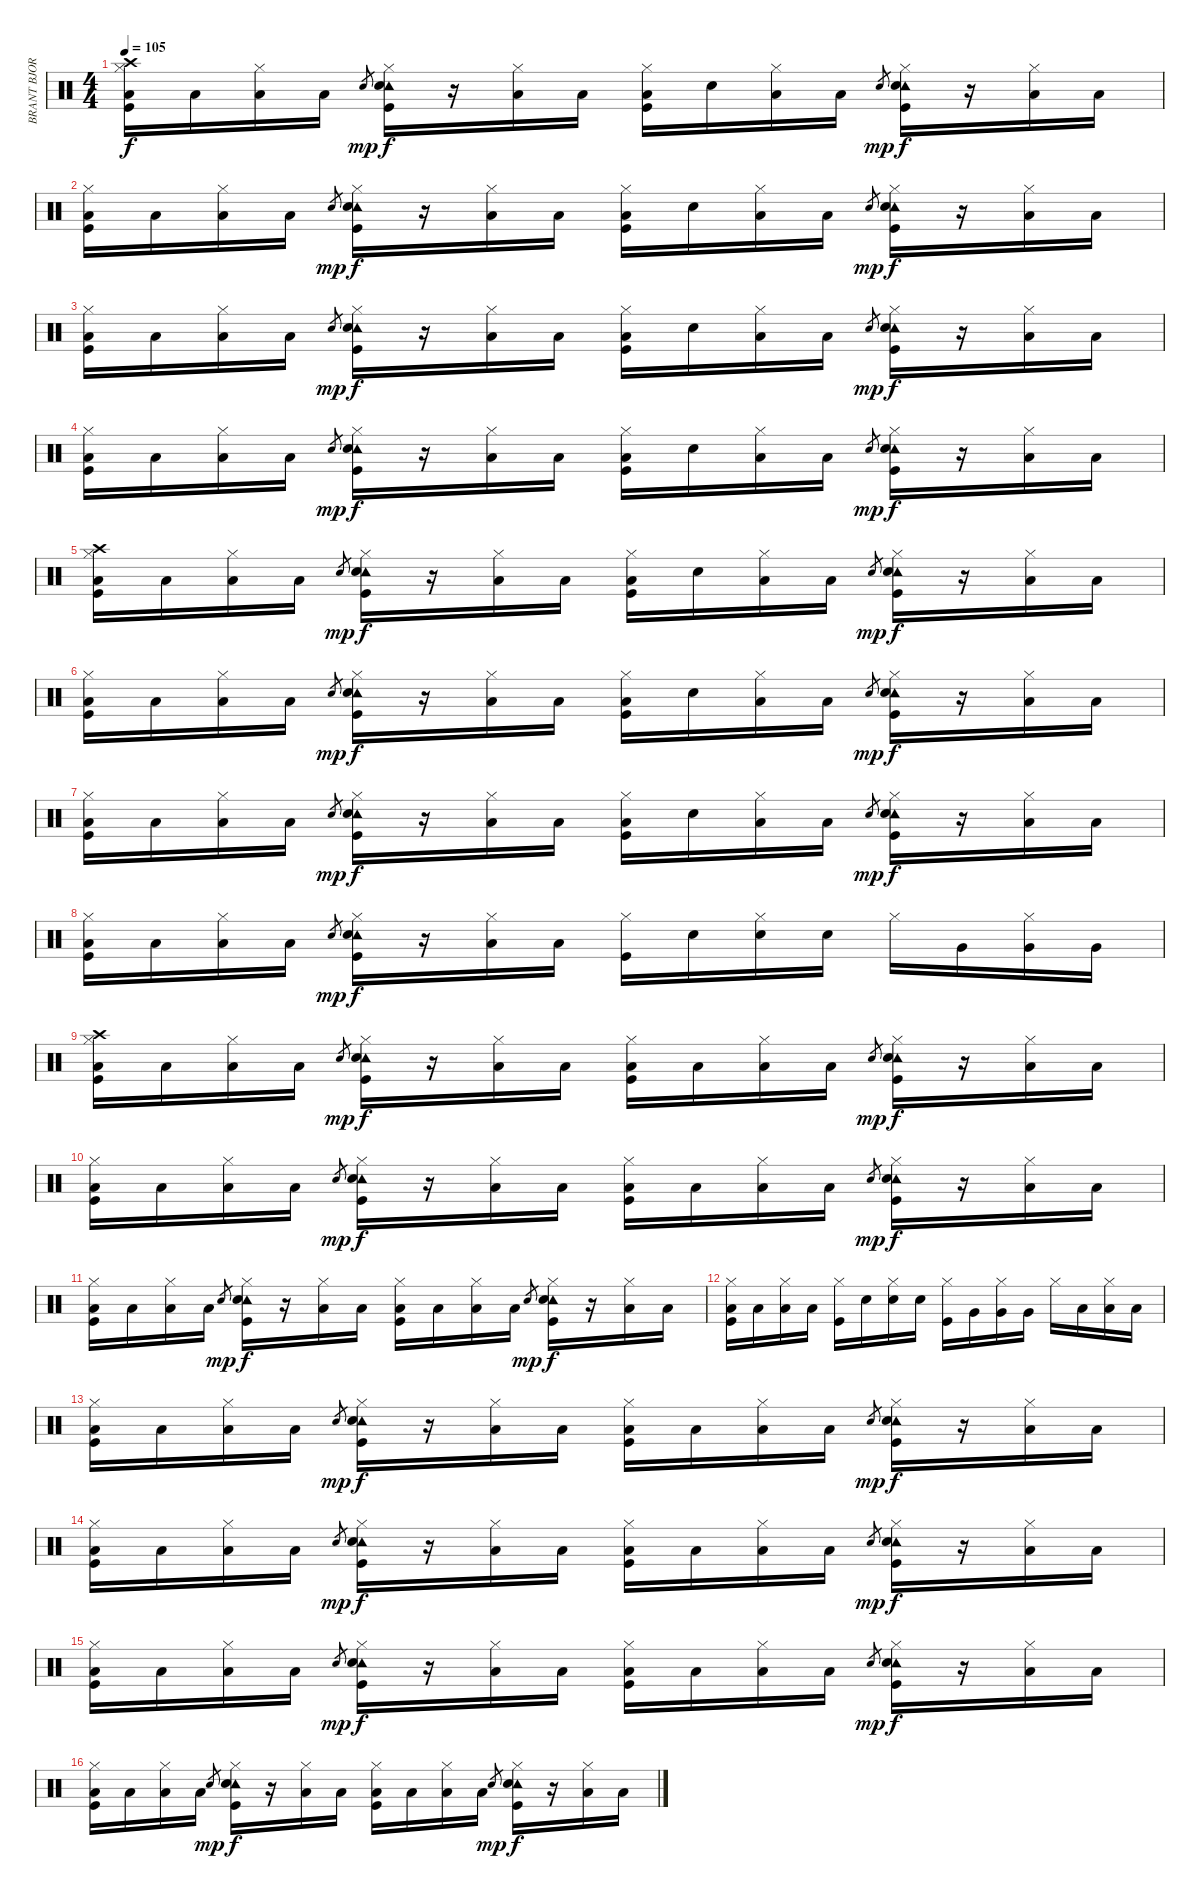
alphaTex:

\track ("BRANT BJORK -  DRUMS" "BRANT BJOR") {instrument percussion}
\staff {score}
\articulation defaults
\ts (4 4)
\tempo 105
\clef neutral
\ks c
("Crash high (hit)" "Hi-Hat (closed)" "Low Floor Tom (hit)" "Kick (hit)").16{dy f} "Low Floor Tom (hit)".16 ("Hi-Hat (closed)" "Low Floor Tom (hit)").16 "Low Floor Tom (hit)".16 "Snare (hit) 2".8{gr dy mp} ("Tambourine (hit)" "Hi-Hat (closed)" "Snare (hit) 2" "Kick (hit)").16{dy f} r.16 ("Hi-Hat (closed)" "Low Floor Tom (hit)").16 "Low Floor Tom (hit)".16 ("Hi-Hat (closed)" "Low Floor Tom (hit)" "Kick (hit)").16 "Snare (hit) 2".16 ("Hi-Hat (closed)" "Low Floor Tom (hit)").16 "Low Floor Tom (hit)".16 "Snare (hit) 2".8{gr dy mp} ("Tambourine (hit)" "Hi-Hat (closed)" "Snare (hit) 2" "Kick (hit)").16{dy f} r.16 ("Hi-Hat (closed)" "Low Floor Tom (hit)").16 "Low Floor Tom (hit)".16 |
("Hi-Hat (closed)" "Low Floor Tom (hit)" "Kick (hit)").16 "Low Floor Tom (hit)".16 ("Hi-Hat (closed)" "Low Floor Tom (hit)").16 "Low Floor Tom (hit)".16 "Snare (hit) 2".8{gr dy mp} ("Tambourine (hit)" "Hi-Hat (closed)" "Snare (hit) 2" "Kick (hit)").16{dy f} r.16 ("Hi-Hat (closed)" "Low Floor Tom (hit)").16 "Low Floor Tom (hit)".16 ("Hi-Hat (closed)" "Low Floor Tom (hit)" "Kick (hit)").16 "Snare (hit) 2".16 ("Hi-Hat (closed)" "Low Floor Tom (hit)").16 "Low Floor Tom (hit)".16 "Snare (hit) 2".8{gr dy mp} ("Tambourine (hit)" "Hi-Hat (closed)" "Snare (hit) 2" "Kick (hit)").16{dy f} r.16 ("Hi-Hat (closed)" "Low Floor Tom (hit)").16 "Low Floor Tom (hit)".16 |
("Hi-Hat (closed)" "Low Floor Tom (hit)" "Kick (hit)").16 "Low Floor Tom (hit)".16 ("Hi-Hat (closed)" "Low Floor Tom (hit)").16 "Low Floor Tom (hit)".16 "Snare (hit) 2".8{gr dy mp} ("Tambourine (hit)" "Hi-Hat (closed)" "Snare (hit) 2" "Kick (hit)").16{dy f} r.16 ("Hi-Hat (closed)" "Low Floor Tom (hit)").16 "Low Floor Tom (hit)".16 ("Hi-Hat (closed)" "Low Floor Tom (hit)" "Kick (hit)").16 "Snare (hit) 2".16 ("Hi-Hat (closed)" "Low Floor Tom (hit)").16 "Low Floor Tom (hit)".16 "Snare (hit) 2".8{gr dy mp} ("Tambourine (hit)" "Hi-Hat (closed)" "Snare (hit) 2" "Kick (hit)").16{dy f} r.16 ("Hi-Hat (closed)" "Low Floor Tom (hit)").16 "Low Floor Tom (hit)".16 |
("Hi-Hat (closed)" "Low Floor Tom (hit)" "Kick (hit)").16 "Low Floor Tom (hit)".16 ("Hi-Hat (closed)" "Low Floor Tom (hit)").16 "Low Floor Tom (hit)".16 "Snare (hit) 2".8{gr dy mp} ("Tambourine (hit)" "Hi-Hat (closed)" "Snare (hit) 2" "Kick (hit)").16{dy f} r.16 ("Hi-Hat (closed)" "Low Floor Tom (hit)").16 "Low Floor Tom (hit)".16 ("Hi-Hat (closed)" "Low Floor Tom (hit)" "Kick (hit)").16 "Snare (hit) 2".16 ("Hi-Hat (closed)" "Low Floor Tom (hit)").16 "Low Floor Tom (hit)".16 "Snare (hit) 2".8{gr dy mp} ("Tambourine (hit)" "Hi-Hat (closed)" "Snare (hit) 2" "Kick (hit)").16{dy f} r.16 ("Hi-Hat (closed)" "Low Floor Tom (hit)").16 "Low Floor Tom (hit)".16 |
("Crash high (hit)" "Hi-Hat (closed)" "Low Floor Tom (hit)" "Kick (hit)").16 "Low Floor Tom (hit)".16 ("Hi-Hat (closed)" "Low Floor Tom (hit)").16 "Low Floor Tom (hit)".16 "Snare (hit) 2".8{gr dy mp} ("Tambourine (hit)" "Hi-Hat (closed)" "Snare (hit) 2" "Kick (hit)").16{dy f} r.16 ("Hi-Hat (closed)" "Low Floor Tom (hit)").16 "Low Floor Tom (hit)".16 ("Hi-Hat (closed)" "Low Floor Tom (hit)" "Kick (hit)").16 "Snare (hit) 2".16 ("Hi-Hat (closed)" "Low Floor Tom (hit)").16 "Low Floor Tom (hit)".16 "Snare (hit) 2".8{gr dy mp} ("Tambourine (hit)" "Hi-Hat (closed)" "Snare (hit) 2" "Kick (hit)").16{dy f} r.16 ("Hi-Hat (closed)" "Low Floor Tom (hit)").16 "Low Floor Tom (hit)".16 |
("Hi-Hat (closed)" "Low Floor Tom (hit)" "Kick (hit)").16 "Low Floor Tom (hit)".16 ("Hi-Hat (closed)" "Low Floor Tom (hit)").16 "Low Floor Tom (hit)".16 "Snare (hit) 2".8{gr dy mp} ("Tambourine (hit)" "Hi-Hat (closed)" "Snare (hit) 2" "Kick (hit)").16{dy f} r.16 ("Hi-Hat (closed)" "Low Floor Tom (hit)").16 "Low Floor Tom (hit)".16 ("Hi-Hat (closed)" "Low Floor Tom (hit)" "Kick (hit)").16 "Snare (hit) 2".16 ("Hi-Hat (closed)" "Low Floor Tom (hit)").16 "Low Floor Tom (hit)".16 "Snare (hit) 2".8{gr dy mp} ("Tambourine (hit)" "Hi-Hat (closed)" "Snare (hit) 2" "Kick (hit)").16{dy f} r.16 ("Hi-Hat (closed)" "Low Floor Tom (hit)").16 "Low Floor Tom (hit)".16 |
("Hi-Hat (closed)" "Low Floor Tom (hit)" "Kick (hit)").16 "Low Floor Tom (hit)".16 ("Hi-Hat (closed)" "Low Floor Tom (hit)").16 "Low Floor Tom (hit)".16 "Snare (hit) 2".8{gr dy mp} ("Tambourine (hit)" "Hi-Hat (closed)" "Snare (hit) 2" "Kick (hit)").16{dy f} r.16 ("Hi-Hat (closed)" "Low Floor Tom (hit)").16 "Low Floor Tom (hit)".16 ("Hi-Hat (closed)" "Low Floor Tom (hit)" "Kick (hit)").16 "Snare (hit) 2".16 ("Hi-Hat (closed)" "Low Floor Tom (hit)").16 "Low Floor Tom (hit)".16 "Snare (hit) 2".8{gr dy mp} ("Tambourine (hit)" "Hi-Hat (closed)" "Snare (hit) 2" "Kick (hit)").16{dy f} r.16 ("Hi-Hat (closed)" "Low Floor Tom (hit)").16 "Low Floor Tom (hit)".16 |
("Hi-Hat (closed)" "Low Floor Tom (hit)" "Kick (hit)").16 "Low Floor Tom (hit)".16 ("Hi-Hat (closed)" "Low Floor Tom (hit)").16 "Low Floor Tom (hit)".16 "Snare (hit) 2".8{gr dy mp} ("Tambourine (hit)" "Hi-Hat (closed)" "Snare (hit) 2" "Kick (hit)").16{dy f} r.16 ("Hi-Hat (closed)" "Low Floor Tom (hit)").16 "Low Floor Tom (hit)".16 ("Hi-Hat (closed)" "Kick (hit)").16 "Snare (hit) 2".16 ("Hi-Hat (closed)" "Snare (hit) 2").16 "Snare (hit) 2".16 "Hi-Hat (closed)".16 "Very Low Tom (hit)".16 ("Hi-Hat (closed)" "Very Low Tom (hit)").16 "Very Low Tom (hit)".16 |
("Crash high (hit)" "Hi-Hat (closed)" "Low Floor Tom (hit)" "Kick (hit)").16 "Low Floor Tom (hit)".16 ("Hi-Hat (closed)" "Low Floor Tom (hit)").16 "Low Floor Tom (hit)".16 "Snare (hit) 2".8{gr dy mp} ("Tambourine (hit)" "Hi-Hat (closed)" "Snare (hit) 2" "Kick (hit)").16{dy f} r.16 ("Hi-Hat (closed)" "Low Floor Tom (hit)").16 "Low Floor Tom (hit)".16 ("Hi-Hat (closed)" "Low Floor Tom (hit)" "Kick (hit)").16 "Low Floor Tom (hit)".16 ("Hi-Hat (closed)" "Low Floor Tom (hit)").16 "Low Floor Tom (hit)".16 "Snare (hit) 2".8{gr dy mp} ("Tambourine (hit)" "Hi-Hat (closed)" "Snare (hit) 2" "Kick (hit)").16{dy f} r.16 ("Hi-Hat (closed)" "Low Floor Tom (hit)").16 "Low Floor Tom (hit)".16 |
("Hi-Hat (closed)" "Low Floor Tom (hit)" "Kick (hit)").16 "Low Floor Tom (hit)".16 ("Hi-Hat (closed)" "Low Floor Tom (hit)").16 "Low Floor Tom (hit)".16 "Snare (hit) 2".8{gr dy mp} ("Tambourine (hit)" "Hi-Hat (closed)" "Snare (hit) 2" "Kick (hit)").16{dy f} r.16 ("Hi-Hat (closed)" "Low Floor Tom (hit)").16 "Low Floor Tom (hit)".16 ("Hi-Hat (closed)" "Low Floor Tom (hit)" "Kick (hit)").16 "Low Floor Tom (hit)".16 ("Hi-Hat (closed)" "Low Floor Tom (hit)").16 "Low Floor Tom (hit)".16 "Snare (hit) 2".8{gr dy mp} ("Tambourine (hit)" "Hi-Hat (closed)" "Snare (hit) 2" "Kick (hit)").16{dy f} r.16 ("Hi-Hat (closed)" "Low Floor Tom (hit)").16 "Low Floor Tom (hit)".16 |
("Hi-Hat (closed)" "Low Floor Tom (hit)" "Kick (hit)").16 "Low Floor Tom (hit)".16 ("Hi-Hat (closed)" "Low Floor Tom (hit)").16 "Low Floor Tom (hit)".16 "Snare (hit) 2".8{gr dy mp} ("Tambourine (hit)" "Hi-Hat (closed)" "Snare (hit) 2" "Kick (hit)").16{dy f} r.16 ("Hi-Hat (closed)" "Low Floor Tom (hit)").16 "Low Floor Tom (hit)".16 ("Hi-Hat (closed)" "Low Floor Tom (hit)" "Kick (hit)").16 "Low Floor Tom (hit)".16 ("Hi-Hat (closed)" "Low Floor Tom (hit)").16 "Low Floor Tom (hit)".16 "Snare (hit) 2".8{gr dy mp} ("Tambourine (hit)" "Hi-Hat (closed)" "Snare (hit) 2" "Kick (hit)").16{dy f} r.16 ("Hi-Hat (closed)" "Low Floor Tom (hit)").16 "Low Floor Tom (hit)".16 |
("Hi-Hat (closed)" "Low Floor Tom (hit)" "Kick (hit)").16 "Low Floor Tom (hit)".16 ("Hi-Hat (closed)" "Low Floor Tom (hit)").16 "Low Floor Tom (hit)".16 ("Hi-Hat (closed)" "Kick (hit)").16 "Snare (hit) 2".16 ("Hi-Hat (closed)" "Snare (hit) 2").16 "Snare (hit) 2".16 ("Hi-Hat (closed)" "Kick (hit)").16 "Very Low Tom (hit)".16 ("Hi-Hat (closed)" "Very Low Tom (hit)").16 "Very Low Tom (hit)".16 "Hi-Hat (closed)".16 "Low Floor Tom (hit)".16 ("Hi-Hat (closed)" "Low Floor Tom (hit)").16 "Low Floor Tom (hit)".16 |
("Hi-Hat (closed)" "Low Floor Tom (hit)" "Kick (hit)").16 "Low Floor Tom (hit)".16 ("Hi-Hat (closed)" "Low Floor Tom (hit)").16 "Low Floor Tom (hit)".16 "Snare (hit) 2".8{gr dy mp} ("Tambourine (hit)" "Hi-Hat (closed)" "Snare (hit) 2" "Kick (hit)").16{dy f} r.16 ("Hi-Hat (closed)" "Low Floor Tom (hit)").16 "Low Floor Tom (hit)".16 ("Hi-Hat (closed)" "Low Floor Tom (hit)" "Kick (hit)").16 "Low Floor Tom (hit)".16 ("Hi-Hat (closed)" "Low Floor Tom (hit)").16 "Low Floor Tom (hit)".16 "Snare (hit) 2".8{gr dy mp} ("Tambourine (hit)" "Hi-Hat (closed)" "Snare (hit) 2" "Kick (hit)").16{dy f} r.16 ("Hi-Hat (closed)" "Low Floor Tom (hit)").16 "Low Floor Tom (hit)".16 |
("Hi-Hat (closed)" "Low Floor Tom (hit)" "Kick (hit)").16 "Low Floor Tom (hit)".16 ("Hi-Hat (closed)" "Low Floor Tom (hit)").16 "Low Floor Tom (hit)".16 "Snare (hit) 2".8{gr dy mp} ("Tambourine (hit)" "Hi-Hat (closed)" "Snare (hit) 2" "Kick (hit)").16{dy f} r.16 ("Hi-Hat (closed)" "Low Floor Tom (hit)").16 "Low Floor Tom (hit)".16 ("Hi-Hat (closed)" "Low Floor Tom (hit)" "Kick (hit)").16 "Low Floor Tom (hit)".16 ("Hi-Hat (closed)" "Low Floor Tom (hit)").16 "Low Floor Tom (hit)".16 "Snare (hit) 2".8{gr dy mp} ("Tambourine (hit)" "Hi-Hat (closed)" "Snare (hit) 2" "Kick (hit)").16{dy f} r.16 ("Hi-Hat (closed)" "Low Floor Tom (hit)").16 "Low Floor Tom (hit)".16 |
("Hi-Hat (closed)" "Low Floor Tom (hit)" "Kick (hit)").16 "Low Floor Tom (hit)".16 ("Hi-Hat (closed)" "Low Floor Tom (hit)").16 "Low Floor Tom (hit)".16 "Snare (hit) 2".8{gr dy mp} ("Tambourine (hit)" "Hi-Hat (closed)" "Snare (hit) 2" "Kick (hit)").16{dy f} r.16 ("Hi-Hat (closed)" "Low Floor Tom (hit)").16 "Low Floor Tom (hit)".16 ("Hi-Hat (closed)" "Low Floor Tom (hit)" "Kick (hit)").16 "Low Floor Tom (hit)".16 ("Hi-Hat (closed)" "Low Floor Tom (hit)").16 "Low Floor Tom (hit)".16 "Snare (hit) 2".8{gr dy mp} ("Tambourine (hit)" "Hi-Hat (closed)" "Snare (hit) 2" "Kick (hit)").16{dy f} r.16 ("Hi-Hat (closed)" "Low Floor Tom (hit)").16 "Low Floor Tom (hit)".16 |
("Hi-Hat (closed)" "Low Floor Tom (hit)" "Kick (hit)").16 "Low Floor Tom (hit)".16 ("Hi-Hat (closed)" "Low Floor Tom (hit)").16 "Low Floor Tom (hit)".16 "Snare (hit) 2".8{gr dy mp} ("Tambourine (hit)" "Hi-Hat (closed)" "Snare (hit) 2" "Kick (hit)").16{dy f} r.16 ("Hi-Hat (closed)" "Low Floor Tom (hit)").16 "Low Floor Tom (hit)".16 ("Hi-Hat (closed)" "Low Floor Tom (hit)" "Kick (hit)").16 "Low Floor Tom (hit)".16 ("Hi-Hat (closed)" "Low Floor Tom (hit)").16 "Low Floor Tom (hit)".16 "Snare (hit) 2".8{gr dy mp} ("Tambourine (hit)" "Hi-Hat (closed)" "Snare (hit) 2" "Kick (hit)").16{dy f} r.16 ("Hi-Hat (closed)" "Low Floor Tom (hit)").16 "Low Floor Tom (hit)".16
